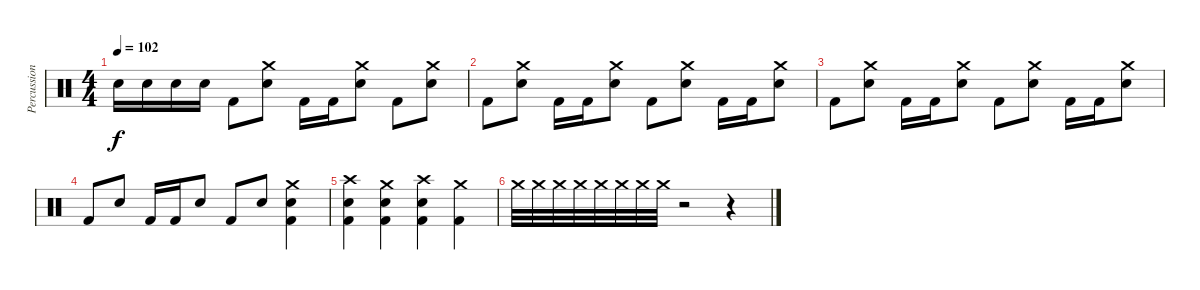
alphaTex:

\track ("Percussions" "Percussion") {instrument percussion}
\staff {score}
\articulation defaults
\ts (4 4)
\tempo 102
\clef neutral
\ks c "Snare (hit) 2".16{dy f} "Snare (hit) 2".16 "Snare (hit) 2".16 "Snare (hit) 2".16 "Kick (hit) 2".8
("Crash medium (hit)" "Snare (hit) 2").8 "Kick (hit) 2".16 "Kick (hit) 2".16 ("Crash medium (hit)" "Snare (hit) 2").8 "Kick (hit) 2".8 ("Crash medium (hit)" "Snare (hit) 2").8 |
"Kick (hit) 2".8 ("Crash medium (hit)" "Snare (hit) 2").8 "Kick (hit) 2".16 "Kick (hit) 2".16 ("Crash medium (hit)" "Snare (hit) 2").8 "Kick (hit) 2".8 ("Crash medium (hit)" "Snare (hit) 2").8 "Kick (hit) 2".16 "Kick (hit) 2".16 ("Crash medium (hit)" "Snare (hit) 2").8 |
"Kick (hit) 2".8 ("Crash medium (hit)" "Snare (hit) 2").8 "Kick (hit) 2".16 "Kick (hit) 2".16 ("Crash medium (hit)" "Snare (hit) 2").8 "Kick (hit) 2".8 ("Crash medium (hit)" "Snare (hit) 2").8 "Kick (hit) 2".16 "Kick (hit) 2".16 ("Crash medium (hit)" "Snare (hit) 2").8 |
"Kick (hit) 2".8 "Snare (hit) 2".8 "Kick (hit) 2".16 "Kick (hit) 2".16 "Snare (hit) 2".8 "Kick (hit) 2".8 "Snare (hit) 2".8 ("Kick (hit) 2" "Crash medium (hit)" "Snare (hit) 2").4 |
("Kick (hit) 2" "Crash high (hit)" "Snare (hit) 2").4 ("Kick (hit) 2" "Crash medium (hit)" "Snare (hit) 2").4 ("Kick (hit) 2" "Crash high (hit)" "Snare (hit) 2").4 ("Kick (hit) 2" "Crash medium (hit)").4 |
"Crash medium (hit)".32 "Crash medium (hit)".32 "Crash medium (hit)".32 "Crash medium (hit)".32 "Crash medium (hit)".32 "Crash medium (hit)".32 "Crash medium (hit)".32 "Crash medium (hit)".32 r.2 r.4
